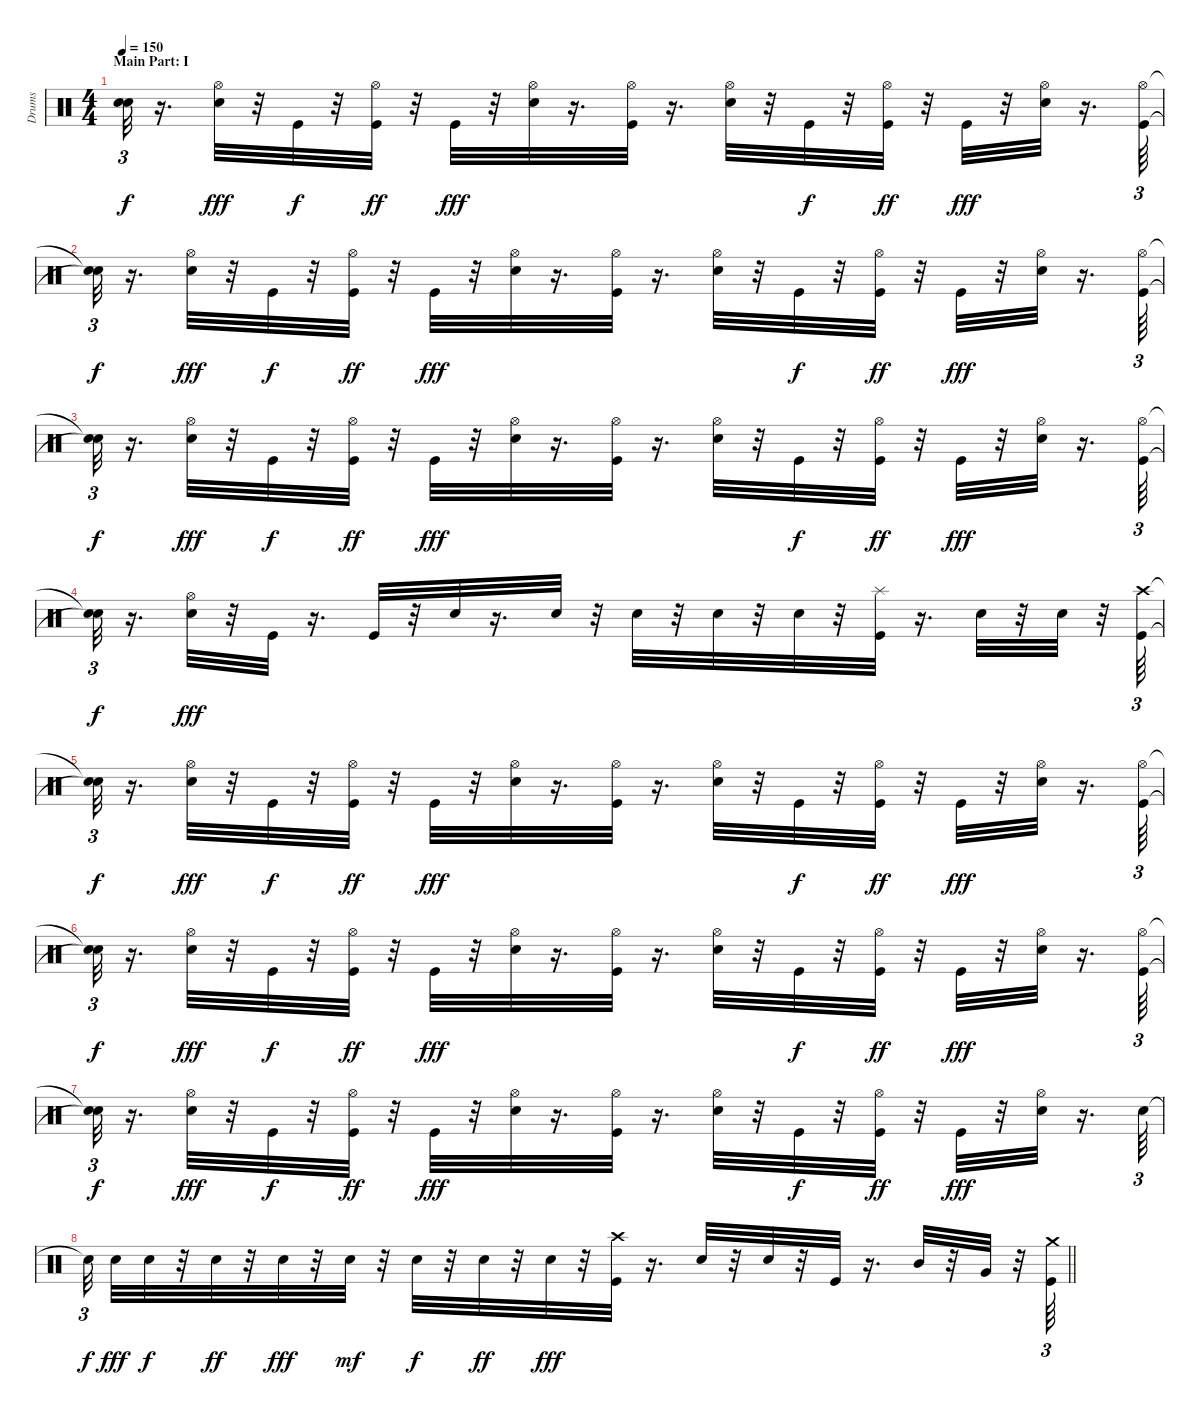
\track ("Drums" "Drums") {instrument percussion}
\staff {score}
\articulation defaults
\ts (4 4)
\section ("" "Main Part: I")
\tempo 150
\clef neutral
\ks c
("Snare (hit)"{t} "Snare (hit)"{t}).32{tu (3 2) dy f} r.16{d} ("Electric Snare (hit)" "Hi-Hat (open)").32{dy fff} r.32 "Kick (hit)".32{dy f} r.32 ("Hi-Hat (open)" "Kick (hit)").32{dy ff} r.32 "Kick (hit)".32{dy fff} r.32 ("Electric Snare (hit)" "Hi-Hat (open)").32 r.16{d} ("Kick (hit)" "Hi-Hat (open)").32 r.16{d} ("Electric Snare (hit)" "Hi-Hat (open)").32 r.32 "Kick (hit)".32{dy f} r.32 ("Hi-Hat (open)" "Kick (hit)").32{dy ff} r.32 "Kick (hit)".32{dy fff} r.32 ("Electric Snare (hit)" "Hi-Hat (open)").32 r.16{d} ("Hi-Hat (open)" "Kick (hit)").64{tu (3 2)} |
("Snare (hit)"{t} "Snare (hit)"{t}).32{tu (3 2) dy f} r.16{d} ("Hi-Hat (open)" "Electric Snare (hit)").32{dy fff} r.32 "Kick (hit)".32{dy f} r.32 ("Hi-Hat (open)" "Kick (hit)").32{dy ff} r.32 "Kick (hit)".32{dy fff} r.32 ("Hi-Hat (open)" "Electric Snare (hit)").32 r.16{d} ("Hi-Hat (open)" "Kick (hit)").32 r.16{d} ("Hi-Hat (open)" "Electric Snare (hit)").32 r.32 "Kick (hit)".32{dy f} r.32 ("Hi-Hat (open)" "Kick (hit)").32{dy ff} r.32 "Kick (hit)".32{dy fff} r.32 ("Hi-Hat (open)" "Electric Snare (hit)").32 r.16{d} ("Hi-Hat (open)" "Kick (hit)").64{tu (3 2)} |
("Snare (hit)"{t} "Snare (hit)"{t}).32{tu (3 2) dy f} r.16{d} ("Hi-Hat (open)" "Electric Snare (hit)").32{dy fff} r.32 "Kick (hit)".32{dy f} r.32 ("Hi-Hat (open)" "Kick (hit)").32{dy ff} r.32 "Kick (hit)".32{dy fff} r.32 ("Hi-Hat (open)" "Electric Snare (hit)").32 r.16{d} ("Hi-Hat (open)" "Kick (hit)").32 r.16{d} ("Hi-Hat (open)" "Electric Snare (hit)").32 r.32 "Kick (hit)".32{dy f} r.32 ("Hi-Hat (open)" "Kick (hit)").32{dy ff} r.32 "Kick (hit)".32{dy fff} r.32 ("Hi-Hat (open)" "Electric Snare (hit)").32 r.16{d} ("Hi-Hat (open)" "Kick (hit)").64{tu (3 2)} |
("Snare (hit)"{t} "Snare (hit)"{t}).32{tu (3 2) dy f} r.16{d} ("Hi-Hat (open)" "Electric Snare (hit)").32{dy fff} r.32 "Kick (hit)".32 r.16{d} "Kick (hit)".32 r.32 "Electric Snare (hit)".32 r.16{d} "Electric Snare (hit)".32 r.32 "Electric Snare (hit)".32 r.32 "Electric Snare (hit)".32 r.32 "Electric Snare (hit)".32 r.32 ("Splash (hit)" "Kick (hit)").32 r.16{d} "Electric Snare (hit)".32 r.32 "Electric Snare (hit)".32 r.32 ("Kick (hit)" "Crash high (hit)").64{tu (3 2)} |
("Snare (hit)"{t} "Snare (hit)"{t}).32{tu (3 2) dy f} r.16{d} ("Electric Snare (hit)" "Hi-Hat (open)").32{dy fff} r.32 "Kick (hit)".32{dy f} r.32 ("Hi-Hat (open)" "Kick (hit)").32{dy ff} r.32 "Kick (hit)".32{dy fff} r.32 ("Electric Snare (hit)" "Hi-Hat (open)").32 r.16{d} ("Kick (hit)" "Hi-Hat (open)").32 r.16{d} ("Electric Snare (hit)" "Hi-Hat (open)").32 r.32 "Kick (hit)".32{dy f} r.32 ("Hi-Hat (open)" "Kick (hit)").32{dy ff} r.32 "Kick (hit)".32{dy fff} r.32 ("Electric Snare (hit)" "Hi-Hat (open)").32 r.16{d} ("Hi-Hat (open)" "Kick (hit)").64{tu (3 2)} |
("Snare (hit)"{t} "Snare (hit)"{t}).32{tu (3 2) dy f} r.16{d} ("Hi-Hat (open)" "Electric Snare (hit)").32{dy fff} r.32 "Kick (hit)".32{dy f} r.32 ("Hi-Hat (open)" "Kick (hit)").32{dy ff} r.32 "Kick (hit)".32{dy fff} r.32 ("Hi-Hat (open)" "Electric Snare (hit)").32 r.16{d} ("Hi-Hat (open)" "Kick (hit)").32 r.16{d} ("Hi-Hat (open)" "Electric Snare (hit)").32 r.32 "Kick (hit)".32{dy f} r.32 ("Hi-Hat (open)" "Kick (hit)").32{dy ff} r.32 "Kick (hit)".32{dy fff} r.32 ("Hi-Hat (open)" "Electric Snare (hit)").32 r.16{d} ("Hi-Hat (open)" "Kick (hit)").64{tu (3 2)} |
("Snare (hit)"{t} "Snare (hit)"{t}).32{tu (3 2) dy f} r.16{d} ("Hi-Hat (open)" "Electric Snare (hit)").32{dy fff} r.32 "Kick (hit)".32{dy f} r.32 ("Hi-Hat (open)" "Kick (hit)").32{dy ff} r.32 "Kick (hit)".32{dy fff} r.32 ("Hi-Hat (open)" "Electric Snare (hit)").32 r.16{d} ("Hi-Hat (open)" "Kick (hit)").32 r.16{d} ("Hi-Hat (open)" "Electric Snare (hit)").32 r.32 "Kick (hit)".32{dy f} r.32 ("Hi-Hat (open)" "Kick (hit)").32{dy ff} r.32 "Kick (hit)".32{dy fff} r.32 ("Hi-Hat (open)" "Electric Snare (hit)").32 r.16{d} "Electric Snare (hit)".64{tu (3 2)} |
\barLineRight lightlight "Snare (hit)"{t}.32{tu (3 2) dy f beam splitsecondary} "Electric Snare (hit)".32{dy fff} "Electric Snare (hit)".32{dy f}
r.32 "Electric Snare (hit)".32{dy ff} r.32 "Electric Snare (hit)".32{dy fff} r.32 "Electric Snare (hit)".32{dy mf} r.32 "Electric Snare (hit)".32{dy f} r.32 "Electric Snare (hit)".32{dy ff} r.32 "Electric Snare (hit)".32{dy fff} r.32 ("Kick (hit)" "Crash high (hit)").32 r.16{d} "Electric Snare (hit)".32 r.32 "Electric Snare (hit)".32 r.32 "Kick (hit)".32 r.16{d} "Mid Tom (hit)".32 r.32 "Very Low Tom (hit)".32 r.32 ("Kick (hit)" "Crash medium (hit)").64{tu (3 2)}
